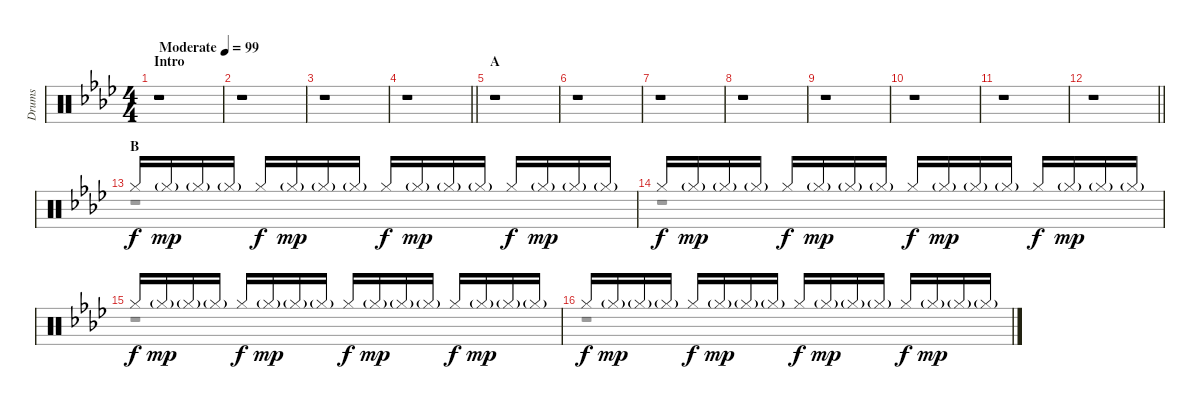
\track ("Drums" "Drums") {instrument percussion}
\staff {score}
\articulation defaults
\voice
\ts (4 4)
\section ("" "Intro")
\tempo (99 "Moderate")
\clef neutral
\ks ab
r.1{dy f} |
r.1 |
r.1 |
\barLineRight lightlight
r.1 |
\section ("" "A")
r.1 |
r.1 |
r.1 |
r.1 |
r.1 |
r.1 |
r.1 |
\barLineRight lightlight
r.1 |
\section ("" "B")
"Hi-Hat (closed)".16 "Hi-Hat (closed)"{g}.16{dy mp} "Hi-Hat (closed)"{g}.16 "Hi-Hat (closed)"{g}.16 "Hi-Hat (closed)".16{dy f} "Hi-Hat (closed)"{g}.16{dy mp} "Hi-Hat (closed)"{g}.16 "Hi-Hat (closed)"{g}.16 "Hi-Hat (closed)".16{dy f} "Hi-Hat (closed)"{g}.16{dy mp} "Hi-Hat (closed)"{g}.16 "Hi-Hat (closed)"{g}.16 "Hi-Hat (closed)".16{dy f} "Hi-Hat (closed)"{g}.16{dy mp} "Hi-Hat (closed)"{g}.16 "Hi-Hat (closed)"{g}.16 |
"Hi-Hat (closed)".16{dy f} "Hi-Hat (closed)"{g}.16{dy mp} "Hi-Hat (closed)"{g}.16 "Hi-Hat (closed)"{g}.16 "Hi-Hat (closed)".16{dy f} "Hi-Hat (closed)"{g}.16{dy mp} "Hi-Hat (closed)"{g}.16 "Hi-Hat (closed)"{g}.16 "Hi-Hat (closed)".16{dy f} "Hi-Hat (closed)"{g}.16{dy mp} "Hi-Hat (closed)"{g}.16 "Hi-Hat (closed)"{g}.16 "Hi-Hat (closed)".16{dy f} "Hi-Hat (closed)"{g}.16{dy mp} "Hi-Hat (closed)"{g}.16 "Hi-Hat (closed)"{g}.16 |
"Hi-Hat (closed)".16{dy f} "Hi-Hat (closed)"{g}.16{dy mp} "Hi-Hat (closed)"{g}.16 "Hi-Hat (closed)"{g}.16 "Hi-Hat (closed)".16{dy f} "Hi-Hat (closed)"{g}.16{dy mp} "Hi-Hat (closed)"{g}.16 "Hi-Hat (closed)"{g}.16 "Hi-Hat (closed)".16{dy f} "Hi-Hat (closed)"{g}.16{dy mp} "Hi-Hat (closed)"{g}.16 "Hi-Hat (closed)"{g}.16 "Hi-Hat (closed)".16{dy f} "Hi-Hat (closed)"{g}.16{dy mp} "Hi-Hat (closed)"{g}.16 "Hi-Hat (closed)"{g}.16 |
"Hi-Hat (closed)".16{dy f} "Hi-Hat (closed)"{g}.16{dy mp} "Hi-Hat (closed)"{g}.16 "Hi-Hat (closed)"{g}.16 "Hi-Hat (closed)".16{dy f} "Hi-Hat (closed)"{g}.16{dy mp} "Hi-Hat (closed)"{g}.16 "Hi-Hat (closed)"{g}.16 "Hi-Hat (closed)".16{dy f} "Hi-Hat (closed)"{g}.16{dy mp} "Hi-Hat (closed)"{g}.16 "Hi-Hat (closed)"{g}.16 "Hi-Hat (closed)".16{dy f} "Hi-Hat (closed)"{g}.16{dy mp} "Hi-Hat (closed)"{g}.16 "Hi-Hat (closed)"{g}.16
\voice
\clef neutral
\ottava regular
\simile none
\ks ab
r.1{dy fff} |
r.1 |
r.1 |
\barLineRight lightlight
r.1 |
r.1 |
r.1 |
r.1 |
r.1 |
r.1 |
r.1 |
r.1 |
\barLineRight lightlight
r.1 |
r.1 |
r.1 |
r.1 |
r.1
